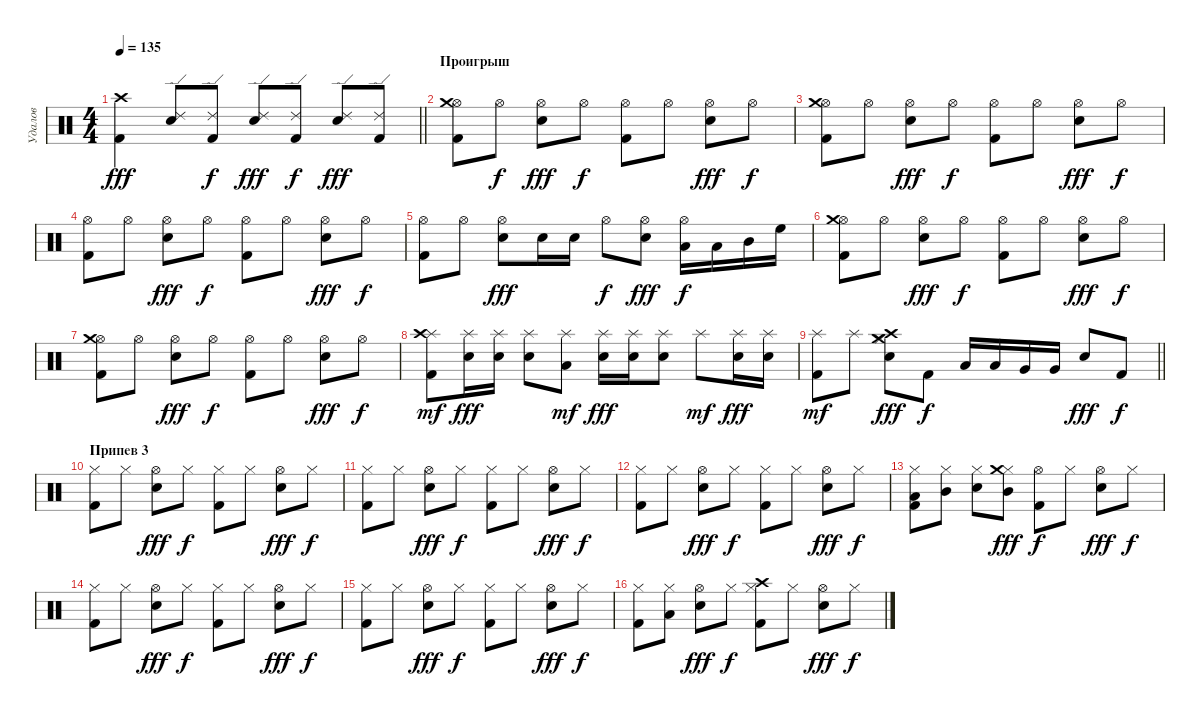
\track ("Удалов" "Удалов") {instrument percussion}
\staff {score}
\articulation defaults
\ts (4 4)
\tempo 135
\clef neutral
\barLineRight lightlight
\ks c
("Crash high (hit)" "Kick (hit) 2").4{dy fff} ("Ride (edge) 2" "Snare (hit) 2").8 ("Ride (edge) 2" "Kick (hit) 2").8{dy f} ("Ride (edge) 2" "Snare (hit) 2").8{dy fff} ("Ride (edge) 2" "Kick (hit) 2").8{dy f} ("Ride (edge) 2" "Snare (hit) 2").8{dy fff} ("Ride (edge) 2" "Kick (hit) 2").8 |
\section ("" "Проигрыш")
("Hi-Hat (open)" "Kick (hit) 2" "Crash medium (hit)").8 "Hi-Hat (open)".8{dy f} ("Hi-Hat (open)" "Snare (hit) 2").8{dy fff} "Hi-Hat (open)".8{dy f} ("Hi-Hat (open)" "Kick (hit) 2").8 "Hi-Hat (open)".8 ("Hi-Hat (open)" "Snare (hit) 2").8{dy fff} "Hi-Hat (open)".8{dy f} |
("Hi-Hat (open)" "Kick (hit) 2" "Crash medium (hit)").8 "Hi-Hat (open)".8 ("Hi-Hat (open)" "Snare (hit) 2").8{dy fff} "Hi-Hat (open)".8{dy f} ("Hi-Hat (open)" "Kick (hit) 2").8 "Hi-Hat (open)".8 ("Hi-Hat (open)" "Snare (hit) 2").8{dy fff} "Hi-Hat (open)".8{dy f} |
("Hi-Hat (open)" "Kick (hit) 2").8 "Hi-Hat (open)".8 ("Hi-Hat (open)" "Snare (hit) 2").8{dy fff} "Hi-Hat (open)".8{dy f} ("Hi-Hat (open)" "Kick (hit) 2").8 "Hi-Hat (open)".8 ("Hi-Hat (open)" "Snare (hit) 2").8{dy fff} "Hi-Hat (open)".8{dy f} |
("Hi-Hat (open)" "Kick (hit) 2").8 "Hi-Hat (open)".8 ("Hi-Hat (open)" "Snare (hit) 2").8{dy fff} "Snare (hit) 2".16 "Snare (hit) 2".16 "Hi-Hat (open)".8{dy f} ("Hi-Hat (open)" "Snare (hit) 2").8{dy fff} ("Hi-Hat (open)" "Low Floor Tom (hit)").16{dy f} "Low Tom (hit)".16 "Mid Tom (hit)".16 "High Floor Tom (hit)".16 |
("Hi-Hat (open)" "Kick (hit) 2" "Crash medium (hit)").8 "Hi-Hat (open)".8 ("Hi-Hat (open)" "Snare (hit) 2").8{dy fff} "Hi-Hat (open)".8{dy f} ("Hi-Hat (open)" "Kick (hit) 2").8 "Hi-Hat (open)".8 ("Hi-Hat (open)" "Snare (hit) 2").8{dy fff} "Hi-Hat (open)".8{dy f} |
("Hi-Hat (open)" "Kick (hit) 2" "Crash medium (hit)").8 "Hi-Hat (open)".8 ("Hi-Hat (open)" "Snare (hit) 2").8{dy fff} "Hi-Hat (open)".8{dy f} ("Hi-Hat (open)" "Kick (hit) 2").8 "Hi-Hat (open)".8 ("Hi-Hat (open)" "Snare (hit) 2").8{dy fff} "Hi-Hat (open)".8{dy f} |
("Splash (hit)" "Crash high (hit)" "Kick (hit) 2").8{dy mf} ("Splash (hit)" "Snare (hit) 2").16{dy fff} ("Splash (hit)" "Snare (hit) 2").16 ("Splash (hit)" "Snare (hit) 2").8 ("Splash (hit)" "Low Floor Tom (hit)").8{dy mf} ("Splash (hit)" "Snare (hit) 2").16{dy fff} ("Splash (hit)" "Snare (hit) 2").16 ("Splash (hit)" "Snare (hit) 2").8 "Splash (hit)".8{dy mf} ("Splash (hit)" "Snare (hit) 2").16{dy fff} ("Splash (hit)" "Snare (hit) 2").16 |
\barLineRight lightlight
("Splash (hit)" "Kick (hit) 2").8{dy mf} "Splash (hit)".8 ("Hi-Hat (closed)" "Snare (hit) 2" "Crash high (hit)" "Crash medium (hit)").8{dy fff} "Kick (hit) 2".8{dy f} "Low Floor Tom (hit)".16 "Low Floor Tom (hit)".16 "Very Low Tom (hit)".16 "Very Low Tom (hit)".16 "Snare (hit) 2".8{dy fff} "Kick (hit) 2".8{dy f} |
\section ("" "Припев 3")
("Hi-Hat (closed)" "Kick (hit) 2").8 "Hi-Hat (closed)".8 ("Hi-Hat (open)" "Snare (hit) 2").8{dy fff} "Hi-Hat (closed)".8{dy f} ("Hi-Hat (closed)" "Kick (hit) 2").8 "Hi-Hat (closed)".8 ("Hi-Hat (open)" "Snare (hit) 2").8{dy fff} "Hi-Hat (closed)".8{dy f} |
("Hi-Hat (closed)" "Kick (hit) 2").8 "Hi-Hat (closed)".8 ("Hi-Hat (open)" "Snare (hit) 2").8{dy fff} "Hi-Hat (closed)".8{dy f} ("Hi-Hat (closed)" "Kick (hit) 2").8 "Hi-Hat (closed)".8 ("Hi-Hat (open)" "Snare (hit) 2").8{dy fff} "Hi-Hat (closed)".8{dy f} |
("Hi-Hat (closed)" "Kick (hit) 2").8 "Hi-Hat (closed)".8 ("Hi-Hat (open)" "Snare (hit) 2").8{dy fff} "Hi-Hat (closed)".8{dy f} ("Hi-Hat (closed)" "Kick (hit) 2").8 "Hi-Hat (closed)".8 ("Hi-Hat (open)" "Snare (hit) 2").8{dy fff} "Hi-Hat (closed)".8{dy f} |
("Hi-Hat (closed)" "Kick (hit) 2" "Low Floor Tom (hit)").8 ("Hi-Hat (closed)" "Mid Tom (hit)").8 ("Hi-Hat (closed)" "Snare (hit) 2").8 ("Hi-Hat (closed)" "Mid Tom (hit)" "Crash medium (hit)").8{dy fff} ("Hi-Hat (open)" "Kick (hit) 2").8{dy f} "Hi-Hat (closed)".8 ("Hi-Hat (open)" "Snare (hit) 2").8{dy fff} "Hi-Hat (closed)".8{dy f} |
("Hi-Hat (closed)" "Kick (hit) 2").8 "Hi-Hat (closed)".8 ("Hi-Hat (open)" "Snare (hit) 2").8{dy fff} "Hi-Hat (closed)".8{dy f} ("Hi-Hat (closed)" "Kick (hit) 2").8 "Hi-Hat (closed)".8 ("Hi-Hat (open)" "Snare (hit) 2").8{dy fff} "Hi-Hat (closed)".8{dy f} |
("Hi-Hat (closed)" "Kick (hit) 2").8 "Hi-Hat (closed)".8 ("Hi-Hat (open)" "Snare (hit) 2").8{dy fff} "Hi-Hat (closed)".8{dy f} ("Hi-Hat (closed)" "Kick (hit) 2").8 "Hi-Hat (closed)".8 ("Hi-Hat (open)" "Snare (hit) 2").8{dy fff} "Hi-Hat (closed)".8{dy f} |
("Hi-Hat (closed)" "Kick (hit) 2").8 ("Hi-Hat (closed)" "Low Tom (hit)").8 ("Hi-Hat (open)" "Snare (hit) 2").8{dy fff} "Hi-Hat (closed)".8{dy f} ("Hi-Hat (closed)" "Kick (hit) 2" "Crash high (hit)").8 "Hi-Hat (closed)".8 ("Hi-Hat (open)" "Snare (hit) 2").8{dy fff} "Hi-Hat (closed)".8{dy f}
